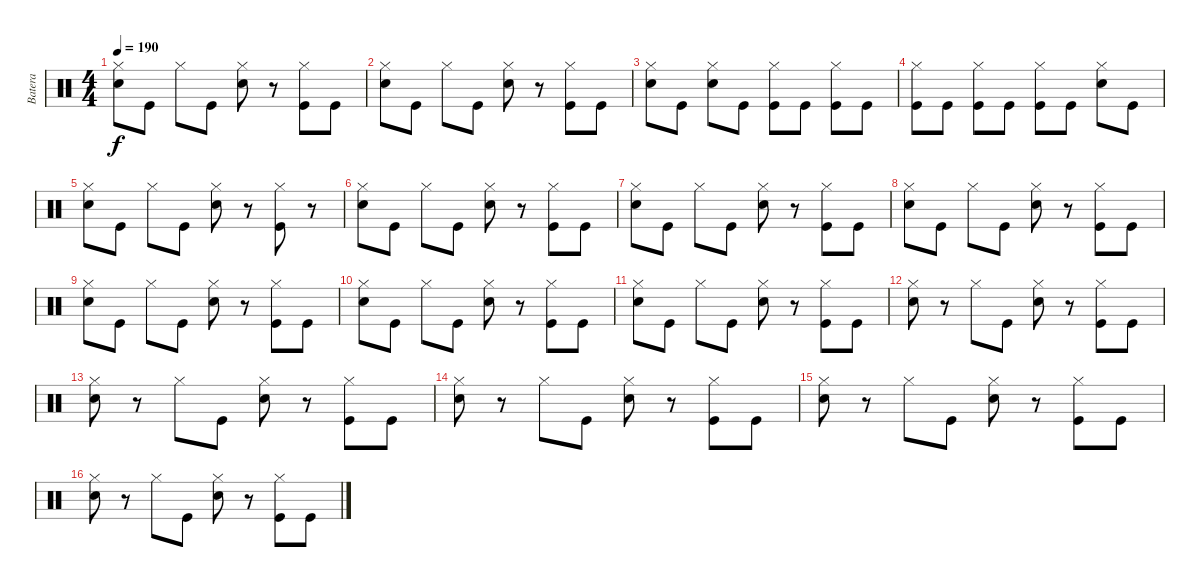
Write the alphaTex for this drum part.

\track ("Batera" "Batera") {instrument percussion}
\staff {score}
\articulation defaults
\ts (4 4)
\tempo 190
\clef neutral
\ks c
("Hi-Hat (closed)" "Snare (hit) 2").8{dy f} "Kick (hit)".8 "Hi-Hat (closed)".8 "Kick (hit)".8 ("Hi-Hat (closed)" "Snare (hit) 2").8 r.8 ("Hi-Hat (closed)" "Kick (hit)").8 "Kick (hit)".8 |
("Hi-Hat (closed)" "Snare (hit) 2").8 "Kick (hit)".8 "Hi-Hat (closed)".8 "Kick (hit)".8 ("Hi-Hat (closed)" "Snare (hit) 2").8 r.8 ("Hi-Hat (closed)" "Kick (hit)").8 "Kick (hit)".8 |
("Hi-Hat (closed)" "Snare (hit) 2").8 "Kick (hit)".8 ("Hi-Hat (closed)" "Snare (hit) 2").8 "Kick (hit)".8 ("Hi-Hat (closed)" "Kick (hit)").8 "Kick (hit)".8 ("Hi-Hat (closed)" "Kick (hit)").8 "Kick (hit)".8 |
("Hi-Hat (closed)" "Kick (hit)").8 "Kick (hit)".8 ("Hi-Hat (closed)" "Kick (hit)").8 "Kick (hit)".8 ("Hi-Hat (closed)" "Kick (hit)").8 "Kick (hit)".8 ("Hi-Hat (closed)" "Snare (hit) 2").8 "Kick (hit)".8 |
("Hi-Hat (closed)" "Snare (hit) 2").8 "Kick (hit)".8 "Hi-Hat (closed)".8 "Kick (hit)".8 ("Hi-Hat (closed)" "Snare (hit) 2").8 r.8 ("Hi-Hat (closed)" "Kick (hit)").8 r.8 |
("Hi-Hat (closed)" "Snare (hit) 2").8 "Kick (hit)".8 "Hi-Hat (closed)".8 "Kick (hit)".8 ("Hi-Hat (closed)" "Snare (hit) 2").8 r.8 ("Hi-Hat (closed)" "Kick (hit)").8 "Kick (hit)".8 |
("Hi-Hat (closed)" "Snare (hit) 2").8 "Kick (hit)".8 "Hi-Hat (closed)".8 "Kick (hit)".8 ("Hi-Hat (closed)" "Snare (hit) 2").8 r.8 ("Hi-Hat (closed)" "Kick (hit)").8 "Kick (hit)".8 |
("Hi-Hat (closed)" "Snare (hit) 2").8 "Kick (hit)".8 "Hi-Hat (closed)".8 "Kick (hit)".8 ("Hi-Hat (closed)" "Snare (hit) 2").8 r.8 ("Hi-Hat (closed)" "Kick (hit)").8 "Kick (hit)".8 |
("Hi-Hat (closed)" "Snare (hit) 2").8 "Kick (hit)".8 "Hi-Hat (closed)".8 "Kick (hit)".8 ("Hi-Hat (closed)" "Snare (hit) 2").8 r.8 ("Hi-Hat (closed)" "Kick (hit)").8 "Kick (hit)".8 |
("Hi-Hat (closed)" "Snare (hit) 2").8 "Kick (hit)".8 "Hi-Hat (closed)".8 "Kick (hit)".8 ("Hi-Hat (closed)" "Snare (hit) 2").8 r.8 ("Hi-Hat (closed)" "Kick (hit)").8 "Kick (hit)".8 |
("Hi-Hat (closed)" "Snare (hit) 2").8 "Kick (hit)".8 "Hi-Hat (closed)".8 "Kick (hit)".8 ("Hi-Hat (closed)" "Snare (hit) 2").8 r.8 ("Hi-Hat (closed)" "Kick (hit)").8 "Kick (hit)".8 |
("Hi-Hat (closed)" "Snare (hit) 2").8 r.8 "Hi-Hat (closed)".8 "Kick (hit)".8 ("Hi-Hat (closed)" "Snare (hit) 2").8 r.8 ("Hi-Hat (closed)" "Kick (hit)").8 "Kick (hit)".8 |
("Hi-Hat (closed)" "Snare (hit) 2").8 r.8 "Hi-Hat (closed)".8 "Kick (hit)".8 ("Hi-Hat (closed)" "Snare (hit) 2").8 r.8 ("Hi-Hat (closed)" "Kick (hit)").8 "Kick (hit)".8 |
("Hi-Hat (closed)" "Snare (hit) 2").8 r.8 "Hi-Hat (closed)".8 "Kick (hit)".8 ("Hi-Hat (closed)" "Snare (hit) 2").8 r.8 ("Hi-Hat (closed)" "Kick (hit)").8 "Kick (hit)".8 |
("Hi-Hat (closed)" "Snare (hit) 2").8 r.8 "Hi-Hat (closed)".8 "Kick (hit)".8 ("Hi-Hat (closed)" "Snare (hit) 2").8 r.8 ("Hi-Hat (closed)" "Kick (hit)").8 "Kick (hit)".8 |
("Hi-Hat (closed)" "Snare (hit) 2").8 r.8 "Hi-Hat (closed)".8 "Kick (hit)".8 ("Hi-Hat (closed)" "Snare (hit) 2").8 r.8 ("Hi-Hat (closed)" "Kick (hit)").8 "Kick (hit)".8
